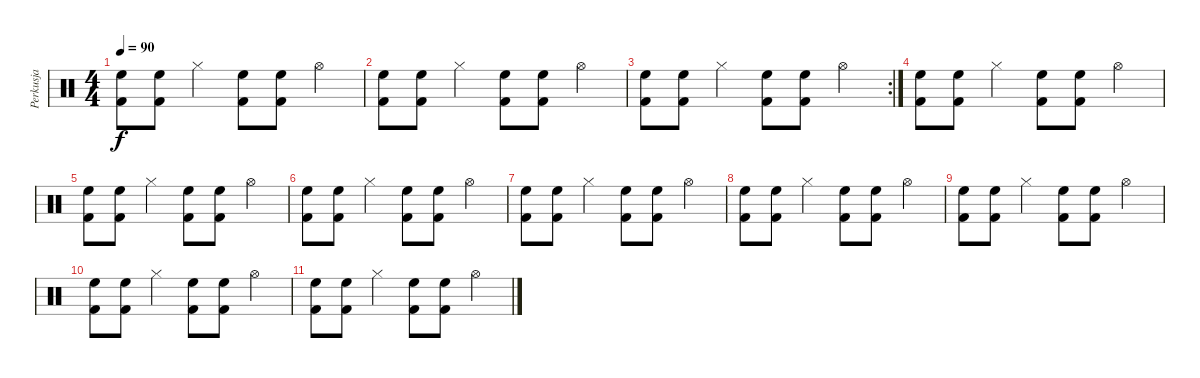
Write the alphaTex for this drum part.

\track ("Perkusja" "Perkusja") {instrument percussion}
\staff {score}
\articulation defaults
\ts (4 4)
\tempo 90
\clef neutral
\ks c
("Kick (hit) 2" "High Floor Tom (hit)").8{dy f} ("Kick (hit) 2" "High Floor Tom (hit)").8 "Hi-Hat (closed)".4 ("Kick (hit) 2" "High Floor Tom (hit)").8 ("Kick (hit) 2" "High Floor Tom (hit)").8 "Hi-Hat (open)".4 |
("Kick (hit) 2" "High Floor Tom (hit)").8 ("Kick (hit) 2" "High Floor Tom (hit)").8 "Hi-Hat (closed)".4 ("Kick (hit) 2" "High Floor Tom (hit)").8 ("Kick (hit) 2" "High Floor Tom (hit)").8 "Hi-Hat (open)".4 |
\rc 2
("Kick (hit) 2" "High Floor Tom (hit)").8 ("Kick (hit) 2" "High Floor Tom (hit)").8 "Hi-Hat (closed)".4 ("Kick (hit) 2" "High Floor Tom (hit)").8 ("Kick (hit) 2" "High Floor Tom (hit)").8 "Hi-Hat (open)".4 |
("Kick (hit) 2" "High Floor Tom (hit)").8 ("Kick (hit) 2" "High Floor Tom (hit)").8 "Hi-Hat (closed)".4 ("Kick (hit) 2" "High Floor Tom (hit)").8 ("Kick (hit) 2" "High Floor Tom (hit)").8 "Hi-Hat (open)".4 |
("Kick (hit) 2" "High Floor Tom (hit)").8 ("Kick (hit) 2" "High Floor Tom (hit)").8 "Hi-Hat (closed)".4 ("Kick (hit) 2" "High Floor Tom (hit)").8 ("Kick (hit) 2" "High Floor Tom (hit)").8 "Hi-Hat (open)".4 |
("Kick (hit) 2" "High Floor Tom (hit)").8 ("Kick (hit) 2" "High Floor Tom (hit)").8 "Hi-Hat (closed)".4 ("Kick (hit) 2" "High Floor Tom (hit)").8 ("Kick (hit) 2" "High Floor Tom (hit)").8 "Hi-Hat (open)".4 |
("Kick (hit) 2" "High Floor Tom (hit)").8 ("Kick (hit) 2" "High Floor Tom (hit)").8 "Hi-Hat (closed)".4 ("Kick (hit) 2" "High Floor Tom (hit)").8 ("Kick (hit) 2" "High Floor Tom (hit)").8 "Hi-Hat (open)".4 |
("Kick (hit) 2" "High Floor Tom (hit)").8 ("Kick (hit) 2" "High Floor Tom (hit)").8 "Hi-Hat (closed)".4 ("Kick (hit) 2" "High Floor Tom (hit)").8 ("Kick (hit) 2" "High Floor Tom (hit)").8 "Hi-Hat (open)".4 |
("Kick (hit) 2" "High Floor Tom (hit)").8 ("Kick (hit) 2" "High Floor Tom (hit)").8 "Hi-Hat (closed)".4 ("Kick (hit) 2" "High Floor Tom (hit)").8 ("Kick (hit) 2" "High Floor Tom (hit)").8 "Hi-Hat (open)".4 |
("Kick (hit) 2" "High Floor Tom (hit)").8 ("Kick (hit) 2" "High Floor Tom (hit)").8 "Hi-Hat (closed)".4 ("Kick (hit) 2" "High Floor Tom (hit)").8 ("Kick (hit) 2" "High Floor Tom (hit)").8 "Hi-Hat (open)".4 |
("Kick (hit) 2" "High Floor Tom (hit)").8 ("Kick (hit) 2" "High Floor Tom (hit)").8 "Hi-Hat (closed)".4 ("Kick (hit) 2" "High Floor Tom (hit)").8 ("Kick (hit) 2" "High Floor Tom (hit)").8 "Hi-Hat (open)".4
